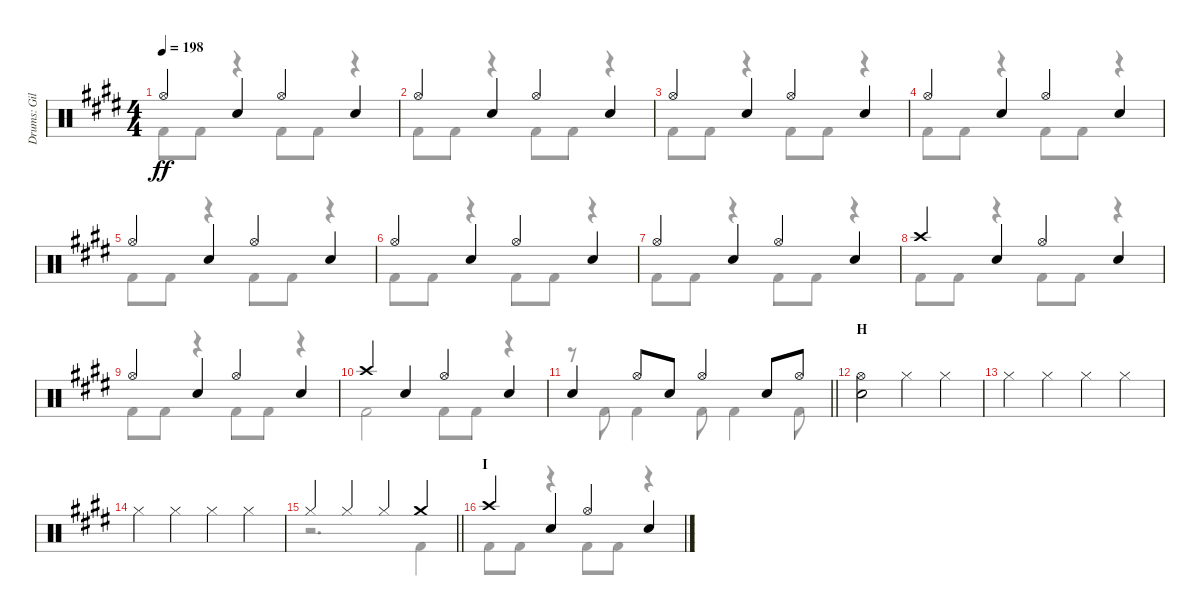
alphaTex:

\track ("Drums: Gil" "Drums: Gil") {instrument percussion}
\staff {score}
\articulation defaults
\voice
\ts (4 4)
\tempo 198
\clef neutral
\ks e "Hi-Hat (open)".4{dy ff} "Snare (hit) 2".4{beam merge} "Hi-Hat (open)".4 "Snare (hit) 2".4
|
"Hi-Hat (open)".4 "Snare (hit) 2".4{beam merge} "Hi-Hat (open)".4 "Snare (hit) 2".4 |
"Hi-Hat (open)".4 "Snare (hit) 2".4{beam merge} "Hi-Hat (open)".4 "Snare (hit) 2".4 |
"Hi-Hat (open)".4 "Snare (hit) 2".4{beam merge} "Hi-Hat (open)".4 "Snare (hit) 2".4 |
"Hi-Hat (open)".4 "Snare (hit) 2".4{beam merge} "Hi-Hat (open)".4 "Snare (hit) 2".4 |
"Hi-Hat (open)".4 "Snare (hit) 2".4{beam merge} "Hi-Hat (open)".4 "Snare (hit) 2".4 |
"Hi-Hat (open)".4 "Snare (hit) 2".4{beam merge} "Hi-Hat (open)".4 "Snare (hit) 2".4 |
"Crash high (hit)".4 "Snare (hit) 2".4{beam merge} "Hi-Hat (open)".4 "Snare (hit) 2".4 |
"Hi-Hat (open)".4 "Snare (hit) 2".4{beam merge} "Hi-Hat (open)".4 "Snare (hit) 2".4 |
"Crash high (hit)".4 "Snare (hit) 2".4 "Hi-Hat (open)".4 "Snare (hit) 2".4 |
\barLineRight lightlight "Snare (hit) 2".4 "Hi-Hat (open)".8 "Snare (hit) 2".8 "Hi-Hat (open)".4 "Snare (hit) 2".8 "Hi-Hat (open)".8
|
\section ("" "H")
("Hi-Hat (open)" "Snare (hit) 2").2 "Hi-Hat (closed)".4 "Hi-Hat (closed)".4 |
"Hi-Hat (closed)".4 "Hi-Hat (closed)".4{beam merge} "Hi-Hat (closed)".4 "Hi-Hat (closed)".4 |
"Hi-Hat (closed)".4 "Hi-Hat (closed)".4{beam merge} "Hi-Hat (closed)".4 "Hi-Hat (closed)".4 |
\barLineRight lightlight "Hi-Hat (closed)".4 "Hi-Hat (closed)".4{beam merge} "Hi-Hat (closed)".4 "Crash medium (hit)".4
|
\section ("" "I")
"Crash high (hit)".4 "Snare (hit) 2".4{beam merge} "Hi-Hat (open)".4 "Snare (hit) 2".4
\voice
\clef neutral
\ottava regular
\simile none
\ks e "Kick (hit) 2".8{dy ff} "Kick (hit) 2".8
r.4 "Kick (hit) 2".8 "Kick (hit) 2".8 r.4 |
"Kick (hit) 2".8 "Kick (hit) 2".8 r.4 "Kick (hit) 2".8 "Kick (hit) 2".8 r.4 |
"Kick (hit) 2".8 "Kick (hit) 2".8 r.4 "Kick (hit) 2".8 "Kick (hit) 2".8 r.4 |
"Kick (hit) 2".8 "Kick (hit) 2".8 r.4 "Kick (hit) 2".8 "Kick (hit) 2".8 r.4 |
"Kick (hit) 2".8 "Kick (hit) 2".8 r.4 "Kick (hit) 2".8 "Kick (hit) 2".8 r.4 |
"Kick (hit) 2".8 "Kick (hit) 2".8 r.4 "Kick (hit) 2".8 "Kick (hit) 2".8 r.4 |
"Kick (hit) 2".8 "Kick (hit) 2".8 r.4 "Kick (hit) 2".8 "Kick (hit) 2".8 r.4 |
"Kick (hit) 2".8 "Kick (hit) 2".8 r.4 "Kick (hit) 2".8 "Kick (hit) 2".8 r.4 |
"Kick (hit) 2".8 "Kick (hit) 2".8 r.4 "Kick (hit) 2".8 "Kick (hit) 2".8 r.4 |
"Kick (hit) 2".2 "Kick (hit) 2".8 "Kick (hit) 2".8 r.4 |
\barLineRight lightlight
r.8 "Kick (hit) 2".8 "Kick (hit) 2".4 "Kick (hit) 2".8 "Kick (hit) 2".4 "Kick (hit) 2".8 |
|
|
|
\barLineRight lightlight
r.2{d} "Kick (hit) 2".4 |
"Kick (hit) 2".8 "Kick (hit) 2".8 r.4 "Kick (hit) 2".8 "Kick (hit) 2".8 r.4
